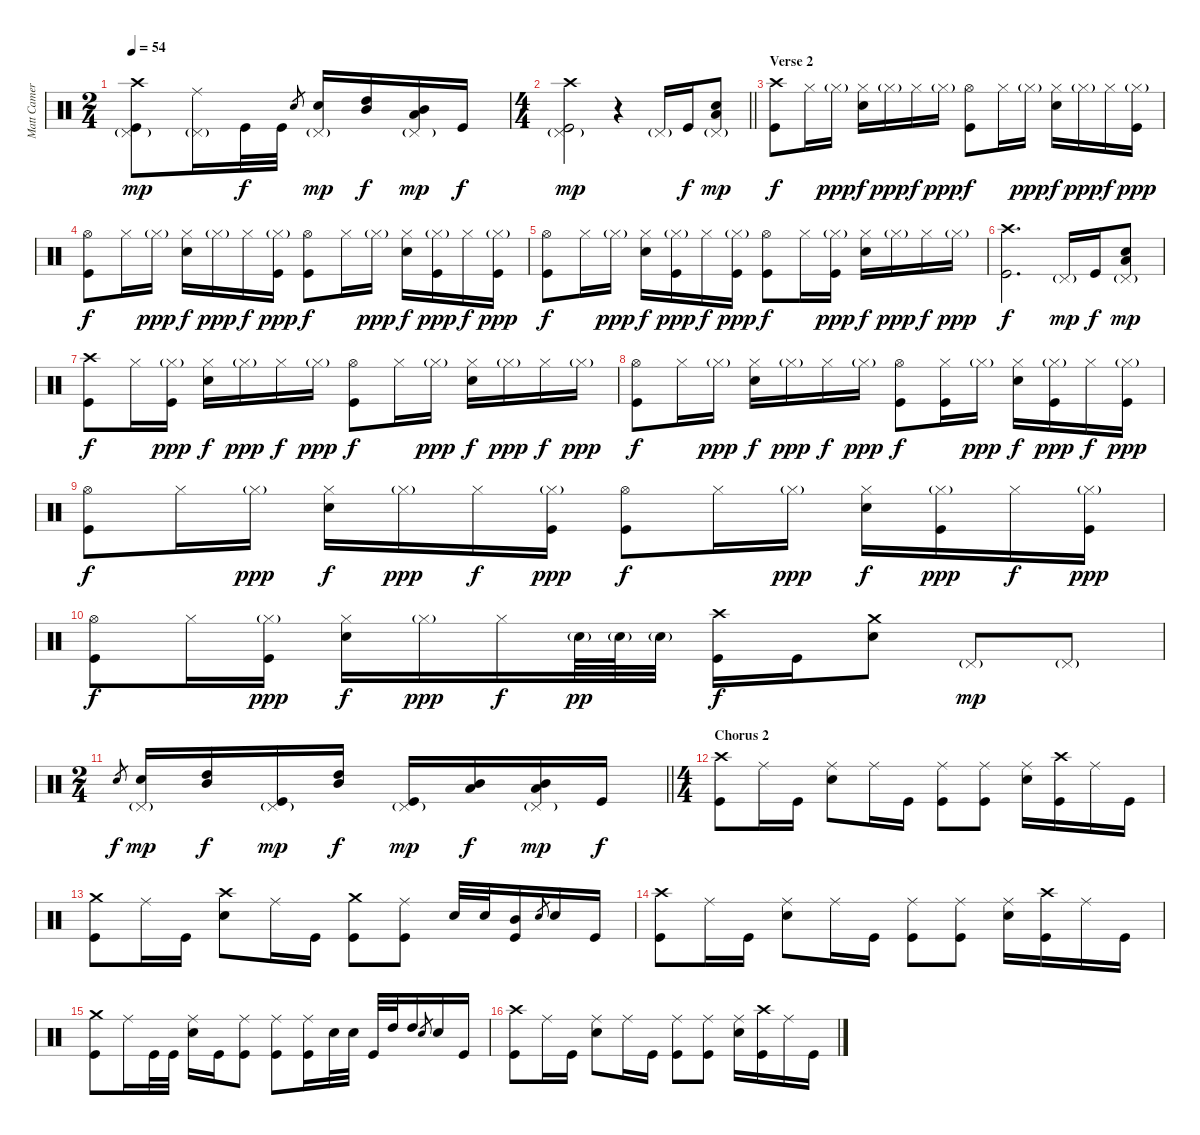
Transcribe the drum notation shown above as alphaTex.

\track ("Matt Cameron" "Matt Camer") {instrument percussion}
\staff {score}
\articulation defaults
\ts (2 4)
\tempo 54
\clef neutral
\ks c
("Crash high (hit)" "Pedal Hi-Hat (hit)"{g} "Kick (hit)").8{dy mp} ("Ride (middle)" "Pedal Hi-Hat (hit)"{g}).16 "Kick (hit)".32{dy f} "Kick (hit)".32 "Electric Snare (hit)".8{gr} ("Electric Snare (hit)" "Pedal Hi-Hat (hit)"{g}).16{dy mp} ("High Tom (hit)" "Mid Tom (hit)").16{dy f} ("Mid Tom (hit)" "Low Floor Tom (hit)" "Pedal Hi-Hat (hit)"{g}).16{dy mp} "Kick (hit)".16{dy f} |
\ts (4 4)
\barLineRight lightlight
("Crash high (hit)" "Pedal Hi-Hat (hit)"{g} "Kick (hit)").2{dy mp} r.4 "Pedal Hi-Hat (hit)"{g}.16 "Kick (hit)".16{dy f} ("Electric Snare (hit)" "Low Floor Tom (hit)" "Pedal Hi-Hat (hit)"{g}).8{dy mp} |
\section ("" "Verse 2")
("Crash high (hit)" "Kick (hit)").8{dy f} "Hi-Hat (closed)".16 "Hi-Hat (closed)"{g}.16{dy ppp} ("Hi-Hat (closed)" "Electric Snare (hit)").16{dy f} "Hi-Hat (closed)"{g}.16{dy ppp} "Hi-Hat (closed)".16{dy f} "Hi-Hat (closed)"{g}.16{dy ppp} ("Hi-Hat (open)" "Kick (hit)").8{dy f} "Hi-Hat (closed)".16 "Hi-Hat (closed)"{g}.16{dy ppp} ("Hi-Hat (closed)" "Electric Snare (hit)").16{dy f} "Hi-Hat (closed)"{g}.16{dy ppp} "Hi-Hat (closed)".16{dy f} ("Hi-Hat (closed)"{g} "Kick (hit)").16{dy ppp} |
("Hi-Hat (open)" "Kick (hit)").8{dy f} "Hi-Hat (closed)".16 "Hi-Hat (closed)"{g}.16{dy ppp} ("Hi-Hat (closed)" "Electric Snare (hit)").16{dy f} "Hi-Hat (closed)"{g}.16{dy ppp} "Hi-Hat (closed)".16{dy f} ("Hi-Hat (closed)"{g} "Kick (hit)").16{dy ppp} ("Hi-Hat (open)" "Kick (hit)").8{dy f} "Hi-Hat (closed)".16 "Hi-Hat (closed)"{g}.16{dy ppp} ("Hi-Hat (closed)" "Electric Snare (hit)").16{dy f} ("Hi-Hat (closed)"{g} "Kick (hit)").16{dy ppp} "Hi-Hat (closed)".16{dy f} ("Hi-Hat (closed)"{g} "Kick (hit)").16{dy ppp} |
("Hi-Hat (open)" "Kick (hit)").8{dy f} "Hi-Hat (closed)".16 "Hi-Hat (closed)"{g}.16{dy ppp} ("Hi-Hat (closed)" "Electric Snare (hit)").16{dy f} ("Hi-Hat (closed)"{g} "Kick (hit)").16{dy ppp} "Hi-Hat (closed)".16{dy f} ("Hi-Hat (closed)"{g} "Kick (hit)").16{dy ppp} ("Hi-Hat (open)" "Kick (hit)").8{dy f} "Hi-Hat (closed)".16 ("Hi-Hat (closed)"{g} "Kick (hit)").16{dy ppp} ("Hi-Hat (closed)" "Electric Snare (hit)").16{dy f} "Hi-Hat (closed)"{g}.16{dy ppp} "Hi-Hat (closed)".16{dy f} "Hi-Hat (closed)"{g}.16{dy ppp} |
("Crash high (hit)" "Kick (hit)").2{d dy f} "Pedal Hi-Hat (hit)"{g}.16{dy mp} "Kick (hit)".16{dy f} ("Electric Snare (hit)" "Low Floor Tom (hit)" "Pedal Hi-Hat (hit)"{g}).8{dy mp} |
("Crash high (hit)" "Kick (hit)").8{dy f} "Hi-Hat (closed)".16 ("Hi-Hat (closed)"{g} "Kick (hit)").16{dy ppp} ("Hi-Hat (closed)" "Electric Snare (hit)").16{dy f} "Hi-Hat (closed)"{g}.16{dy ppp} "Hi-Hat (closed)".16{dy f} "Hi-Hat (closed)"{g}.16{dy ppp} ("Hi-Hat (open)" "Kick (hit)").8{dy f} "Hi-Hat (closed)".16 "Hi-Hat (closed)"{g}.16{dy ppp} ("Hi-Hat (closed)" "Electric Snare (hit)").16{dy f} "Hi-Hat (closed)"{g}.16{dy ppp} "Hi-Hat (closed)".16{dy f} "Hi-Hat (closed)"{g}.16{dy ppp} |
("Hi-Hat (open)" "Kick (hit)").8{dy f} "Hi-Hat (closed)".16 "Hi-Hat (closed)"{g}.16{dy ppp} ("Hi-Hat (closed)" "Electric Snare (hit)").16{dy f} "Hi-Hat (closed)"{g}.16{dy ppp} "Hi-Hat (closed)".16{dy f} "Hi-Hat (closed)"{g}.16{dy ppp} ("Hi-Hat (open)" "Kick (hit)").8{dy f} ("Hi-Hat (closed)" "Kick (hit)").16 "Hi-Hat (closed)"{g}.16{dy ppp} ("Hi-Hat (closed)" "Electric Snare (hit)").16{dy f} ("Hi-Hat (closed)"{g} "Kick (hit)").16{dy ppp} "Hi-Hat (closed)".16{dy f} ("Hi-Hat (closed)"{g} "Kick (hit)").16{dy ppp} |
("Hi-Hat (open)" "Kick (hit)").8{dy f} "Hi-Hat (closed)".16 "Hi-Hat (closed)"{g}.16{dy ppp} ("Hi-Hat (closed)" "Electric Snare (hit)").16{dy f} "Hi-Hat (closed)"{g}.16{dy ppp} "Hi-Hat (closed)".16{dy f} ("Hi-Hat (closed)"{g} "Kick (hit)").16{dy ppp} ("Hi-Hat (open)" "Kick (hit)").8{dy f} "Hi-Hat (closed)".16 "Hi-Hat (closed)"{g}.16{dy ppp} ("Hi-Hat (closed)" "Electric Snare (hit)").16{dy f} ("Hi-Hat (closed)"{g} "Kick (hit)").16{dy ppp} "Hi-Hat (closed)".16{dy f} ("Hi-Hat (closed)"{g} "Kick (hit)").16{dy ppp} |
("Hi-Hat (open)" "Kick (hit)").8{dy f} "Hi-Hat (closed)".16 ("Hi-Hat (closed)"{g} "Kick (hit)").16{dy ppp} ("Hi-Hat (closed)" "Electric Snare (hit)").16{dy f} "Hi-Hat (closed)"{g}.16{dy ppp} "Hi-Hat (closed)".16{dy f} "Electric Snare (hit)"{g}.64{dy pp} "Electric Snare (hit)"{g}.64 "Electric Snare (hit)"{g}.32 ("Crash high (hit)" "Kick (hit)").16{dy f} "Kick (hit)".16 ("Crash medium (hit)" "Electric Snare (hit)").8 "Pedal Hi-Hat (hit)"{g}.8{dy mp} "Pedal Hi-Hat (hit)"{g}.8 |
\ts (2 4)
\barLineRight lightlight "Electric Snare (hit)".8{gr dy f}
("Electric Snare (hit)" "Pedal Hi-Hat (hit)"{g}).16{dy mp} ("High Tom (hit)" "Mid Tom (hit)").16{dy f} ("Pedal Hi-Hat (hit)"{g} "Kick (hit)").16{dy mp} ("High Tom (hit)" "Mid Tom (hit)").16{dy f} ("Pedal Hi-Hat (hit)"{g} "Kick (hit)").16{dy mp} ("Mid Tom (hit)" "Low Floor Tom (hit)").16{dy f} ("Mid Tom (hit)" "Low Floor Tom (hit)" "Pedal Hi-Hat (hit)"{g}).16{dy mp} "Kick (hit)".16{dy f} |
\ts (4 4)
\section ("" "Chorus 2")
("Crash high (hit)" "Kick (hit)").8 "Ride (middle)".16 "Kick (hit)".16 ("Ride (middle)" "Electric Snare (hit)").8 "Ride (middle)".16 "Kick (hit)".16 ("Ride (middle)" "Kick (hit)").8 ("Ride (middle)" "Kick (hit)").8 ("Ride (middle)" "Electric Snare (hit)").16 ("Crash high (hit)" "Kick (hit)").16 "Ride (middle)".16 "Kick (hit)".16 |
("Crash medium (hit)" "Kick (hit)").8 "Ride (middle)".16 "Kick (hit)".16 ("Crash high (hit)" "Electric Snare (hit)").8 "Ride (middle)".16 "Kick (hit)".16 ("Crash medium (hit)" "Kick (hit)").8 ("Ride (middle)" "Kick (hit)").8 "Electric Snare (hit)".32 "Electric Snare (hit)".32 ("Mid Tom (hit)" "Kick (hit)").16 "Electric Snare (hit)".8{gr} "Electric Snare (hit)".16 "Kick (hit)".16 |
("Crash high (hit)" "Kick (hit)").8 "Ride (middle)".16 "Kick (hit)".16 ("Ride (middle)" "Electric Snare (hit)").8 "Ride (middle)".16 "Kick (hit)".16 ("Ride (middle)" "Kick (hit)").8 ("Ride (middle)" "Kick (hit)").8 ("Ride (middle)" "Electric Snare (hit)").16 ("Crash high (hit)" "Kick (hit)").16 "Ride (middle)".16 "Kick (hit)".16 |
("Crash medium (hit)" "Kick (hit)").8 "Ride (middle)".16 "Kick (hit)".32 "Kick (hit)".32 ("Ride (middle)" "Electric Snare (hit)").16 "Kick (hit)".16 ("Ride (middle)" "Kick (hit)").8 ("Ride (middle)" "Kick (hit)").8 ("Ride (middle)" "Kick (hit)").16 "Electric Snare (hit)".32 "Electric Snare (hit)".32 "Kick (hit)".32 "High Tom (hit)".32 "High Tom (hit)".16 "Electric Snare (hit)".8{gr} "Electric Snare (hit)".16 "Kick (hit)".16 |
("Crash high (hit)" "Kick (hit)").8 "Ride (middle)".16 "Kick (hit)".16 ("Ride (middle)" "Electric Snare (hit)").8 "Ride (middle)".16 "Kick (hit)".16 ("Ride (middle)" "Kick (hit)").8 ("Ride (middle)" "Kick (hit)").8 ("Ride (middle)" "Electric Snare (hit)").16 ("Crash high (hit)" "Kick (hit)").16 "Ride (middle)".16 "Kick (hit)".16
